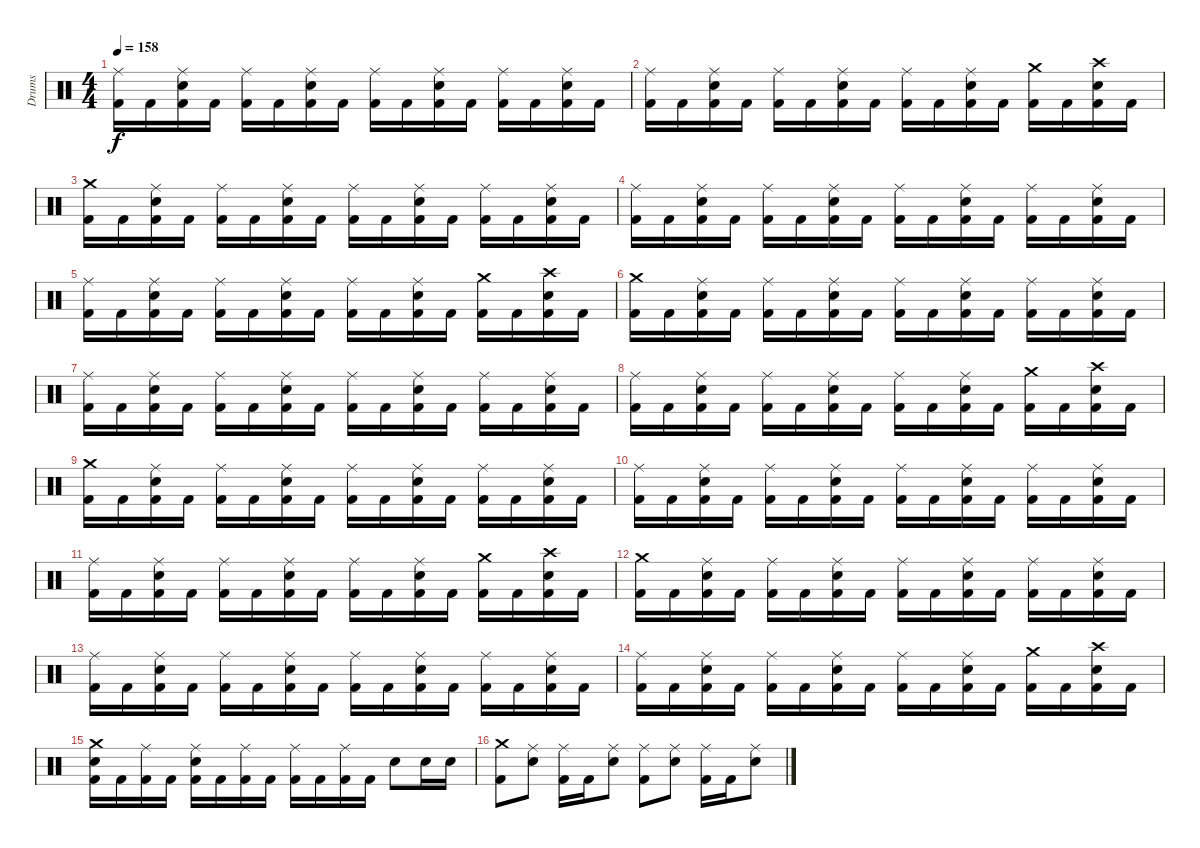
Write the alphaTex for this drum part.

\track ("Drums" "Drums") {instrument percussion}
\staff {score}
\articulation defaults
\ts (4 4)
\tempo 158
\clef neutral
\ks c
("Ride (middle)" "Kick (hit) 2").16{dy f} "Kick (hit) 2".16 ("Ride (middle)" "Electric Snare (hit)" "Kick (hit) 2").16 "Kick (hit) 2".16 ("Ride (middle)" "Kick (hit) 2").16 "Kick (hit) 2".16 ("Ride (middle)" "Electric Snare (hit)" "Kick (hit) 2").16 "Kick (hit) 2".16 ("Ride (middle)" "Kick (hit) 2").16 "Kick (hit) 2".16 ("Ride (middle)" "Electric Snare (hit)" "Kick (hit) 2").16 "Kick (hit) 2".16 ("Ride (middle)" "Kick (hit) 2").16 "Kick (hit) 2".16 ("Ride (middle)" "Electric Snare (hit)" "Kick (hit) 2").16 "Kick (hit) 2".16 |
("Ride (middle)" "Kick (hit) 2").16 "Kick (hit) 2".16 ("Ride (middle)" "Electric Snare (hit)" "Kick (hit) 2").16 "Kick (hit) 2".16 ("Ride (middle)" "Kick (hit) 2").16 "Kick (hit) 2".16 ("Ride (middle)" "Electric Snare (hit)" "Kick (hit) 2").16 "Kick (hit) 2".16 ("Ride (middle)" "Kick (hit) 2").16 "Kick (hit) 2".16 ("Ride (middle)" "Electric Snare (hit)" "Kick (hit) 2").16 "Kick (hit) 2".16 ("Crash medium (hit)" "Kick (hit) 2").16 "Kick (hit) 2".16 ("Crash high (hit)" "Electric Snare (hit)" "Kick (hit) 2").16 "Kick (hit) 2".16 |
("Crash medium (hit)" "Kick (hit) 2").16 "Kick (hit) 2".16 ("Ride (middle)" "Electric Snare (hit)" "Kick (hit) 2").16 "Kick (hit) 2".16 ("Ride (middle)" "Kick (hit) 2").16 "Kick (hit) 2".16 ("Ride (middle)" "Electric Snare (hit)" "Kick (hit) 2").16 "Kick (hit) 2".16 ("Ride (middle)" "Kick (hit) 2").16 "Kick (hit) 2".16 ("Ride (middle)" "Electric Snare (hit)" "Kick (hit) 2").16 "Kick (hit) 2".16 ("Ride (middle)" "Kick (hit) 2").16 "Kick (hit) 2".16 ("Ride (middle)" "Electric Snare (hit)" "Kick (hit) 2").16 "Kick (hit) 2".16 |
("Ride (middle)" "Kick (hit) 2").16 "Kick (hit) 2".16 ("Ride (middle)" "Electric Snare (hit)" "Kick (hit) 2").16 "Kick (hit) 2".16 ("Ride (middle)" "Kick (hit) 2").16 "Kick (hit) 2".16 ("Ride (middle)" "Electric Snare (hit)" "Kick (hit) 2").16 "Kick (hit) 2".16 ("Ride (middle)" "Kick (hit) 2").16 "Kick (hit) 2".16 ("Ride (middle)" "Electric Snare (hit)" "Kick (hit) 2").16 "Kick (hit) 2".16 ("Ride (middle)" "Kick (hit) 2").16 "Kick (hit) 2".16 ("Ride (middle)" "Electric Snare (hit)" "Kick (hit) 2").16 "Kick (hit) 2".16 |
("Ride (middle)" "Kick (hit) 2").16 "Kick (hit) 2".16 ("Ride (middle)" "Electric Snare (hit)" "Kick (hit) 2").16 "Kick (hit) 2".16 ("Ride (middle)" "Kick (hit) 2").16 "Kick (hit) 2".16 ("Ride (middle)" "Electric Snare (hit)" "Kick (hit) 2").16 "Kick (hit) 2".16 ("Ride (middle)" "Kick (hit) 2").16 "Kick (hit) 2".16 ("Ride (middle)" "Electric Snare (hit)" "Kick (hit) 2").16 "Kick (hit) 2".16 ("Crash medium (hit)" "Kick (hit) 2").16 "Kick (hit) 2".16 ("Crash high (hit)" "Electric Snare (hit)" "Kick (hit) 2").16 "Kick (hit) 2".16 |
("Crash medium (hit)" "Kick (hit) 2").16 "Kick (hit) 2".16 ("Ride (middle)" "Electric Snare (hit)" "Kick (hit) 2").16 "Kick (hit) 2".16 ("Ride (middle)" "Kick (hit) 2").16 "Kick (hit) 2".16 ("Ride (middle)" "Electric Snare (hit)" "Kick (hit) 2").16 "Kick (hit) 2".16 ("Ride (middle)" "Kick (hit) 2").16 "Kick (hit) 2".16 ("Ride (middle)" "Electric Snare (hit)" "Kick (hit) 2").16 "Kick (hit) 2".16 ("Ride (middle)" "Kick (hit) 2").16 "Kick (hit) 2".16 ("Ride (middle)" "Electric Snare (hit)" "Kick (hit) 2").16 "Kick (hit) 2".16 |
("Ride (middle)" "Kick (hit) 2").16 "Kick (hit) 2".16 ("Ride (middle)" "Electric Snare (hit)" "Kick (hit) 2").16 "Kick (hit) 2".16 ("Ride (middle)" "Kick (hit) 2").16 "Kick (hit) 2".16 ("Ride (middle)" "Electric Snare (hit)" "Kick (hit) 2").16 "Kick (hit) 2".16 ("Ride (middle)" "Kick (hit) 2").16 "Kick (hit) 2".16 ("Ride (middle)" "Electric Snare (hit)" "Kick (hit) 2").16 "Kick (hit) 2".16 ("Ride (middle)" "Kick (hit) 2").16 "Kick (hit) 2".16 ("Ride (middle)" "Electric Snare (hit)" "Kick (hit) 2").16 "Kick (hit) 2".16 |
("Ride (middle)" "Kick (hit) 2").16 "Kick (hit) 2".16 ("Ride (middle)" "Electric Snare (hit)" "Kick (hit) 2").16 "Kick (hit) 2".16 ("Ride (middle)" "Kick (hit) 2").16 "Kick (hit) 2".16 ("Ride (middle)" "Electric Snare (hit)" "Kick (hit) 2").16 "Kick (hit) 2".16 ("Ride (middle)" "Kick (hit) 2").16 "Kick (hit) 2".16 ("Ride (middle)" "Electric Snare (hit)" "Kick (hit) 2").16 "Kick (hit) 2".16 ("Crash medium (hit)" "Kick (hit) 2").16 "Kick (hit) 2".16 ("Crash high (hit)" "Electric Snare (hit)" "Kick (hit) 2").16 "Kick (hit) 2".16 |
("Crash medium (hit)" "Kick (hit) 2").16 "Kick (hit) 2".16 ("Ride (middle)" "Electric Snare (hit)" "Kick (hit) 2").16 "Kick (hit) 2".16 ("Ride (middle)" "Kick (hit) 2").16 "Kick (hit) 2".16 ("Ride (middle)" "Electric Snare (hit)" "Kick (hit) 2").16 "Kick (hit) 2".16 ("Ride (middle)" "Kick (hit) 2").16 "Kick (hit) 2".16 ("Ride (middle)" "Electric Snare (hit)" "Kick (hit) 2").16 "Kick (hit) 2".16 ("Ride (middle)" "Kick (hit) 2").16 "Kick (hit) 2".16 ("Ride (middle)" "Electric Snare (hit)" "Kick (hit) 2").16 "Kick (hit) 2".16 |
("Ride (middle)" "Kick (hit) 2").16 "Kick (hit) 2".16 ("Ride (middle)" "Electric Snare (hit)" "Kick (hit) 2").16 "Kick (hit) 2".16 ("Ride (middle)" "Kick (hit) 2").16 "Kick (hit) 2".16 ("Ride (middle)" "Electric Snare (hit)" "Kick (hit) 2").16 "Kick (hit) 2".16 ("Ride (middle)" "Kick (hit) 2").16 "Kick (hit) 2".16 ("Ride (middle)" "Electric Snare (hit)" "Kick (hit) 2").16 "Kick (hit) 2".16 ("Ride (middle)" "Kick (hit) 2").16 "Kick (hit) 2".16 ("Ride (middle)" "Electric Snare (hit)" "Kick (hit) 2").16 "Kick (hit) 2".16 |
("Ride (middle)" "Kick (hit) 2").16 "Kick (hit) 2".16 ("Ride (middle)" "Electric Snare (hit)" "Kick (hit) 2").16 "Kick (hit) 2".16 ("Ride (middle)" "Kick (hit) 2").16 "Kick (hit) 2".16 ("Ride (middle)" "Electric Snare (hit)" "Kick (hit) 2").16 "Kick (hit) 2".16 ("Ride (middle)" "Kick (hit) 2").16 "Kick (hit) 2".16 ("Ride (middle)" "Electric Snare (hit)" "Kick (hit) 2").16 "Kick (hit) 2".16 ("Crash medium (hit)" "Kick (hit) 2").16 "Kick (hit) 2".16 ("Crash high (hit)" "Electric Snare (hit)" "Kick (hit) 2").16 "Kick (hit) 2".16 |
("Crash medium (hit)" "Kick (hit) 2").16 "Kick (hit) 2".16 ("Ride (middle)" "Electric Snare (hit)" "Kick (hit) 2").16 "Kick (hit) 2".16 ("Ride (middle)" "Kick (hit) 2").16 "Kick (hit) 2".16 ("Ride (middle)" "Electric Snare (hit)" "Kick (hit) 2").16 "Kick (hit) 2".16 ("Ride (middle)" "Kick (hit) 2").16 "Kick (hit) 2".16 ("Ride (middle)" "Electric Snare (hit)" "Kick (hit) 2").16 "Kick (hit) 2".16 ("Ride (middle)" "Kick (hit) 2").16 "Kick (hit) 2".16 ("Ride (middle)" "Electric Snare (hit)" "Kick (hit) 2").16 "Kick (hit) 2".16 |
("Ride (middle)" "Kick (hit) 2").16 "Kick (hit) 2".16 ("Ride (middle)" "Electric Snare (hit)" "Kick (hit) 2").16 "Kick (hit) 2".16 ("Ride (middle)" "Kick (hit) 2").16 "Kick (hit) 2".16 ("Ride (middle)" "Electric Snare (hit)" "Kick (hit) 2").16 "Kick (hit) 2".16 ("Ride (middle)" "Kick (hit) 2").16 "Kick (hit) 2".16 ("Ride (middle)" "Electric Snare (hit)" "Kick (hit) 2").16 "Kick (hit) 2".16 ("Ride (middle)" "Kick (hit) 2").16 "Kick (hit) 2".16 ("Ride (middle)" "Electric Snare (hit)" "Kick (hit) 2").16 "Kick (hit) 2".16 |
("Ride (middle)" "Kick (hit) 2").16 "Kick (hit) 2".16 ("Ride (middle)" "Electric Snare (hit)" "Kick (hit) 2").16 "Kick (hit) 2".16 ("Ride (middle)" "Kick (hit) 2").16 "Kick (hit) 2".16 ("Ride (middle)" "Electric Snare (hit)" "Kick (hit) 2").16 "Kick (hit) 2".16 ("Ride (middle)" "Kick (hit) 2").16 "Kick (hit) 2".16 ("Ride (middle)" "Electric Snare (hit)" "Kick (hit) 2").16 "Kick (hit) 2".16 ("Crash medium (hit)" "Kick (hit) 2").16 "Kick (hit) 2".16 ("Crash high (hit)" "Electric Snare (hit)" "Kick (hit) 2").16 "Kick (hit) 2".16 |
("Crash medium (hit)" "Electric Snare (hit)" "Kick (hit) 2").16 "Kick (hit) 2".16 ("Ride (middle)" "Kick (hit) 2").16 "Kick (hit) 2".16 ("Ride (middle)" "Electric Snare (hit)" "Kick (hit) 2").16 "Kick (hit) 2".16 ("Ride (middle)" "Kick (hit) 2").16 "Kick (hit) 2".16 ("Ride (middle)" "Kick (hit) 2").16 "Kick (hit) 2".16 ("Ride (middle)" "Kick (hit) 2").16 "Kick (hit) 2".16 "Electric Snare (hit)".8 "Electric Snare (hit)".16 "Electric Snare (hit)".16 |
("Crash medium (hit)" "Kick (hit) 2").8 ("Ride (middle)" "Electric Snare (hit)").8 ("Ride (middle)" "Kick (hit) 2").16 "Kick (hit) 2".16 ("Ride (middle)" "Electric Snare (hit)").8 ("Ride (middle)" "Kick (hit) 2").8 ("Ride (middle)" "Electric Snare (hit)").8 ("Ride (middle)" "Kick (hit) 2").16 "Kick (hit) 2".16 ("Ride (middle)" "Electric Snare (hit)").8
